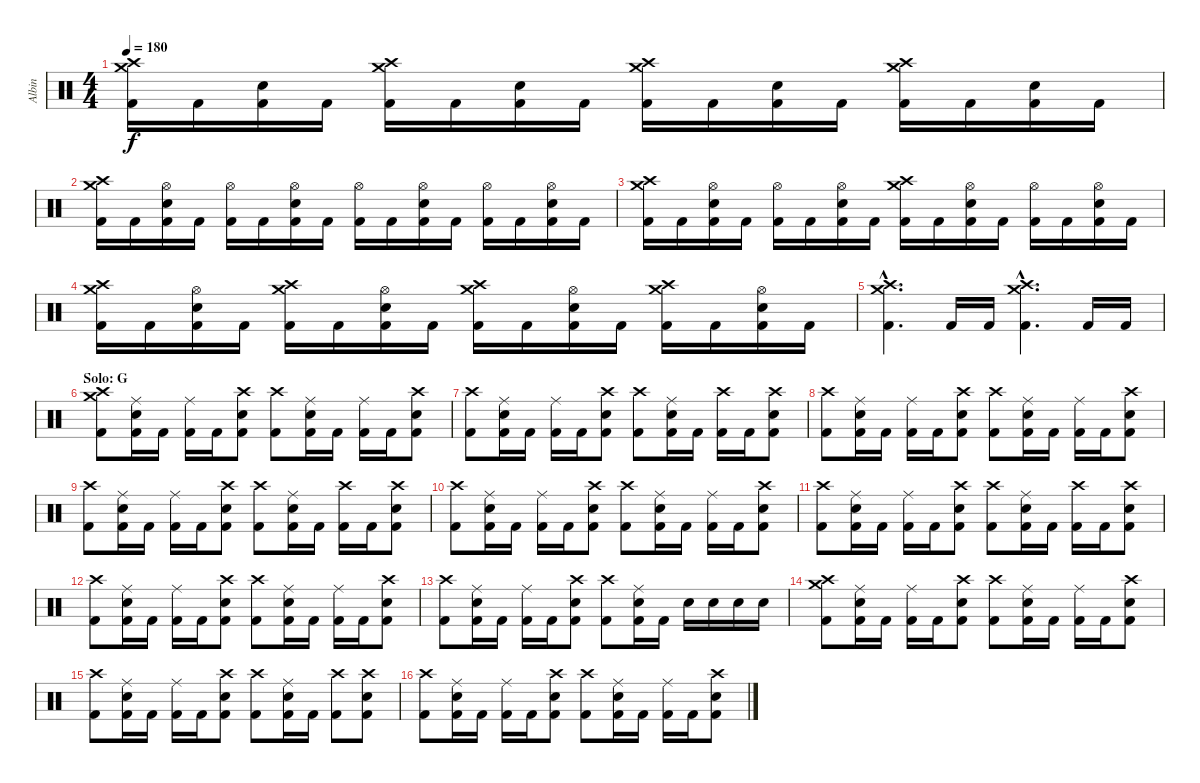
\track ("Albin" "Albin") {instrument percussion}
\staff {score}
\articulation defaults
\ts (4 4)
\tempo 180
\clef neutral
\ks c
("Kick (hit) 2" "Crash high (hit)" "Crash medium (hit)").16{dy f} "Kick (hit) 2".16 ("Kick (hit) 2" "Electric Snare (hit)").16 "Kick (hit) 2".16 ("Kick (hit) 2" "Crash high (hit)" "Crash medium (hit)").16 "Kick (hit) 2".16 ("Kick (hit) 2" "Electric Snare (hit)").16 "Kick (hit) 2".16 ("Kick (hit) 2" "Crash high (hit)" "Crash medium (hit)").16 "Kick (hit) 2".16 ("Kick (hit) 2" "Electric Snare (hit)").16 "Kick (hit) 2".16 ("Kick (hit) 2" "Crash high (hit)" "Crash medium (hit)").16 "Kick (hit) 2".16 ("Kick (hit) 2" "Electric Snare (hit)").16 "Kick (hit) 2".16 |
("Kick (hit) 2" "Crash high (hit)" "Crash medium (hit)").16 "Kick (hit) 2".16 ("Kick (hit) 2" "Electric Snare (hit)" "Hi-Hat (open)").16 "Kick (hit) 2".16 ("Kick (hit) 2" "Hi-Hat (open)").16 "Kick (hit) 2".16 ("Kick (hit) 2" "Electric Snare (hit)" "Hi-Hat (open)").16 "Kick (hit) 2".16 ("Kick (hit) 2" "Hi-Hat (open)").16 "Kick (hit) 2".16 ("Kick (hit) 2" "Electric Snare (hit)" "Hi-Hat (open)").16 "Kick (hit) 2".16 ("Kick (hit) 2" "Hi-Hat (open)").16 "Kick (hit) 2".16 ("Kick (hit) 2" "Electric Snare (hit)" "Hi-Hat (open)").16 "Kick (hit) 2".16 |
("Kick (hit) 2" "Crash high (hit)" "Crash medium (hit)").16 "Kick (hit) 2".16 ("Kick (hit) 2" "Electric Snare (hit)" "Hi-Hat (open)").16 "Kick (hit) 2".16 ("Kick (hit) 2" "Hi-Hat (open)").16 "Kick (hit) 2".16 ("Kick (hit) 2" "Electric Snare (hit)" "Hi-Hat (open)").16 "Kick (hit) 2".16 ("Kick (hit) 2" "Crash high (hit)" "Crash medium (hit)").16 "Kick (hit) 2".16 ("Kick (hit) 2" "Electric Snare (hit)" "Hi-Hat (open)").16 "Kick (hit) 2".16 ("Kick (hit) 2" "Hi-Hat (open)").16 "Kick (hit) 2".16 ("Kick (hit) 2" "Electric Snare (hit)" "Hi-Hat (open)").16 "Kick (hit) 2".16 |
("Kick (hit) 2" "Crash high (hit)" "Crash medium (hit)").16 "Kick (hit) 2".16 ("Kick (hit) 2" "Electric Snare (hit)" "Hi-Hat (open)").16 "Kick (hit) 2".16 ("Kick (hit) 2" "Crash high (hit)" "Crash medium (hit)").16 "Kick (hit) 2".16 ("Kick (hit) 2" "Electric Snare (hit)" "Hi-Hat (open)").16 "Kick (hit) 2".16 ("Kick (hit) 2" "Crash high (hit)" "Crash medium (hit)").16 "Kick (hit) 2".16 ("Kick (hit) 2" "Electric Snare (hit)" "Hi-Hat (open)").16 "Kick (hit) 2".16 ("Kick (hit) 2" "Crash high (hit)" "Crash medium (hit)").16 "Kick (hit) 2".16 ("Kick (hit) 2" "Electric Snare (hit)" "Hi-Hat (open)").16 "Kick (hit) 2".16 |
("Kick (hit) 2"{hac} "Crash high (hit)"{hac} "Crash medium (hit)"{hac}).4{d} "Kick (hit) 2".16 "Kick (hit) 2".16 ("Kick (hit) 2"{hac} "Crash high (hit)"{hac} "Crash medium (hit)"{hac}).4{d} "Kick (hit) 2".16 "Kick (hit) 2".16 |
\section ("" "Solo: G")
("Kick (hit) 2" "Crash high (hit)" "Crash medium (hit)").8 ("Kick (hit) 2" "Electric Snare (hit)" "Ride (middle)").16 "Kick (hit) 2".16 ("Kick (hit) 2" "Ride (middle)").16 "Kick (hit) 2".16 ("Kick (hit) 2" "Electric Snare (hit)" "Crash high (hit)").8 ("Kick (hit) 2" "Crash high (hit)").8 ("Kick (hit) 2" "Electric Snare (hit)" "Ride (middle)").16 "Kick (hit) 2".16 ("Kick (hit) 2" "Ride (middle)").16 "Kick (hit) 2".16 ("Kick (hit) 2" "Electric Snare (hit)" "Crash high (hit)").8 |
("Kick (hit) 2" "Crash high (hit)").8 ("Kick (hit) 2" "Electric Snare (hit)" "Ride (middle)").16 "Kick (hit) 2".16 ("Kick (hit) 2" "Ride (middle)").16 "Kick (hit) 2".16 ("Kick (hit) 2" "Electric Snare (hit)" "Crash high (hit)").8 ("Kick (hit) 2" "Crash high (hit)").8 ("Kick (hit) 2" "Electric Snare (hit)" "Ride (middle)").16 "Kick (hit) 2".16 ("Kick (hit) 2" "Crash high (hit)").16 "Kick (hit) 2".16 ("Kick (hit) 2" "Electric Snare (hit)" "Crash high (hit)").8 |
("Kick (hit) 2" "Crash high (hit)").8 ("Kick (hit) 2" "Electric Snare (hit)" "Ride (middle)").16 "Kick (hit) 2".16 ("Kick (hit) 2" "Ride (middle)").16 "Kick (hit) 2".16 ("Kick (hit) 2" "Electric Snare (hit)" "Crash high (hit)").8 ("Kick (hit) 2" "Crash high (hit)").8 ("Kick (hit) 2" "Electric Snare (hit)" "Ride (middle)").16 "Kick (hit) 2".16 ("Kick (hit) 2" "Ride (middle)").16 "Kick (hit) 2".16 ("Kick (hit) 2" "Electric Snare (hit)" "Crash high (hit)").8 |
("Kick (hit) 2" "Crash high (hit)").8 ("Kick (hit) 2" "Electric Snare (hit)" "Ride (middle)").16 "Kick (hit) 2".16 ("Kick (hit) 2" "Ride (middle)").16 "Kick (hit) 2".16 ("Kick (hit) 2" "Electric Snare (hit)" "Crash high (hit)").8 ("Kick (hit) 2" "Crash high (hit)").8 ("Kick (hit) 2" "Electric Snare (hit)" "Ride (middle)").16 "Kick (hit) 2".16 ("Kick (hit) 2" "Crash high (hit)").16 "Kick (hit) 2".16 ("Kick (hit) 2" "Electric Snare (hit)" "Crash high (hit)").8 |
("Kick (hit) 2" "Crash high (hit)").8 ("Kick (hit) 2" "Electric Snare (hit)" "Ride (middle)").16 "Kick (hit) 2".16 ("Kick (hit) 2" "Ride (middle)").16 "Kick (hit) 2".16 ("Kick (hit) 2" "Electric Snare (hit)" "Crash high (hit)").8 ("Kick (hit) 2" "Crash high (hit)").8 ("Kick (hit) 2" "Electric Snare (hit)" "Ride (middle)").16 "Kick (hit) 2".16 ("Kick (hit) 2" "Ride (middle)").16 "Kick (hit) 2".16 ("Kick (hit) 2" "Electric Snare (hit)" "Crash high (hit)").8 |
("Kick (hit) 2" "Crash high (hit)").8 ("Kick (hit) 2" "Electric Snare (hit)" "Ride (middle)").16 "Kick (hit) 2".16 ("Kick (hit) 2" "Ride (middle)").16 "Kick (hit) 2".16 ("Kick (hit) 2" "Electric Snare (hit)" "Crash high (hit)").8 ("Kick (hit) 2" "Crash high (hit)").8 ("Kick (hit) 2" "Electric Snare (hit)" "Ride (middle)").16 "Kick (hit) 2".16 ("Kick (hit) 2" "Crash high (hit)").16 "Kick (hit) 2".16 ("Kick (hit) 2" "Electric Snare (hit)" "Crash high (hit)").8 |
("Kick (hit) 2" "Crash high (hit)").8 ("Kick (hit) 2" "Electric Snare (hit)" "Ride (middle)").16 "Kick (hit) 2".16 ("Kick (hit) 2" "Ride (middle)").16 "Kick (hit) 2".16 ("Kick (hit) 2" "Electric Snare (hit)" "Crash high (hit)").8 ("Kick (hit) 2" "Crash high (hit)").8 ("Kick (hit) 2" "Electric Snare (hit)" "Ride (middle)").16 "Kick (hit) 2".16 ("Kick (hit) 2" "Ride (middle)").16 "Kick (hit) 2".16 ("Kick (hit) 2" "Electric Snare (hit)" "Crash high (hit)").8 |
("Kick (hit) 2" "Crash high (hit)").8 ("Kick (hit) 2" "Electric Snare (hit)" "Ride (middle)").16 "Kick (hit) 2".16 ("Kick (hit) 2" "Ride (middle)").16 "Kick (hit) 2".16 ("Kick (hit) 2" "Electric Snare (hit)" "Crash high (hit)").8 ("Kick (hit) 2" "Crash high (hit)").8 ("Kick (hit) 2" "Electric Snare (hit)" "Ride (middle)").16 "Kick (hit) 2".16 "Electric Snare (hit)".16 "Electric Snare (hit)".16 "Electric Snare (hit)".16 "Electric Snare (hit)".16 |
("Kick (hit) 2" "Crash high (hit)" "Crash medium (hit)").8 ("Kick (hit) 2" "Electric Snare (hit)" "Ride (middle)").16 "Kick (hit) 2".16 ("Kick (hit) 2" "Ride (middle)").16 "Kick (hit) 2".16 ("Kick (hit) 2" "Electric Snare (hit)" "Crash high (hit)").8 ("Kick (hit) 2" "Crash high (hit)").8 ("Kick (hit) 2" "Electric Snare (hit)" "Ride (middle)").16 "Kick (hit) 2".16 ("Kick (hit) 2" "Ride (middle)").16 "Kick (hit) 2".16 ("Kick (hit) 2" "Electric Snare (hit)" "Crash high (hit)").8 |
("Kick (hit) 2" "Crash high (hit)").8 ("Kick (hit) 2" "Electric Snare (hit)" "Ride (middle)").16 "Kick (hit) 2".16 ("Kick (hit) 2" "Ride (middle)").16 "Kick (hit) 2".16 ("Kick (hit) 2" "Electric Snare (hit)" "Crash high (hit)").8 ("Kick (hit) 2" "Crash high (hit)").8 ("Kick (hit) 2" "Electric Snare (hit)" "Ride (middle)").16 "Kick (hit) 2".16 ("Kick (hit) 2" "Crash high (hit)").8 ("Kick (hit) 2" "Electric Snare (hit)" "Crash high (hit)").8 |
("Kick (hit) 2" "Crash high (hit)").8 ("Kick (hit) 2" "Electric Snare (hit)" "Ride (middle)").16 "Kick (hit) 2".16 ("Kick (hit) 2" "Ride (middle)").16 "Kick (hit) 2".16 ("Kick (hit) 2" "Electric Snare (hit)" "Crash high (hit)").8 ("Kick (hit) 2" "Crash high (hit)").8 ("Kick (hit) 2" "Electric Snare (hit)" "Ride (middle)").16 "Kick (hit) 2".16 ("Kick (hit) 2" "Ride (middle)").16 "Kick (hit) 2".16 ("Kick (hit) 2" "Electric Snare (hit)" "Crash high (hit)").8
